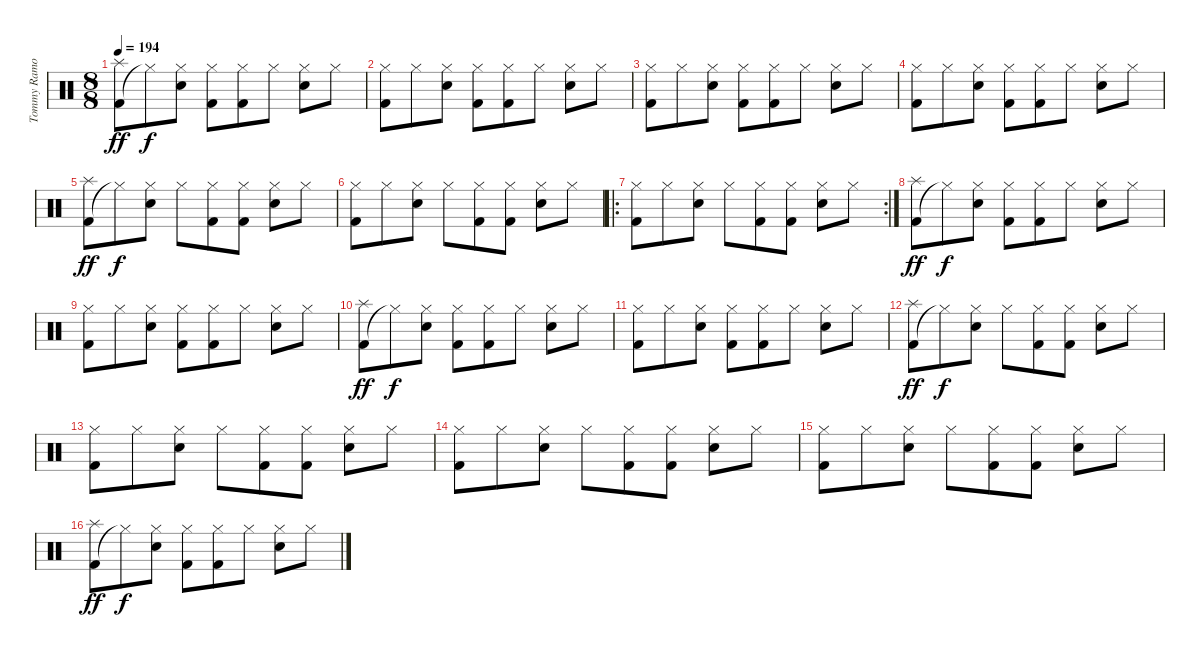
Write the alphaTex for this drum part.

\track ("Tommy Ramone - Drums" "Tommy Ramo") {instrument percussion}
\staff {score}
\articulation defaults
\ts (8 8)
\tempo 194
\clef neutral
\ks c
("Kick (hit) 2" "Splash (hit)").8{dy ff} "Hi-Hat (closed)"{t}.8{dy f} ("Electric Snare (hit)" "Hi-Hat (closed)").8 ("Kick (hit) 2" "Hi-Hat (closed)").8 ("Kick (hit) 2" "Hi-Hat (closed)").8 "Hi-Hat (closed)".8 ("Electric Snare (hit)" "Hi-Hat (closed)").8 "Hi-Hat (closed)".8 |
("Kick (hit) 2" "Hi-Hat (closed)").8 "Hi-Hat (closed)".8 ("Electric Snare (hit)" "Hi-Hat (closed)").8 ("Kick (hit) 2" "Hi-Hat (closed)").8 ("Kick (hit) 2" "Hi-Hat (closed)").8 "Hi-Hat (closed)".8 ("Electric Snare (hit)" "Hi-Hat (closed)").8 "Hi-Hat (closed)".8 |
("Kick (hit) 2" "Hi-Hat (closed)").8 "Hi-Hat (closed)".8 ("Electric Snare (hit)" "Hi-Hat (closed)").8 ("Kick (hit) 2" "Hi-Hat (closed)").8 ("Kick (hit) 2" "Hi-Hat (closed)").8 "Hi-Hat (closed)".8 ("Electric Snare (hit)" "Hi-Hat (closed)").8 "Hi-Hat (closed)".8 |
("Kick (hit) 2" "Hi-Hat (closed)").8 "Hi-Hat (closed)".8 ("Electric Snare (hit)" "Hi-Hat (closed)").8 ("Kick (hit) 2" "Hi-Hat (closed)").8 ("Kick (hit) 2" "Hi-Hat (closed)").8 "Hi-Hat (closed)".8 ("Electric Snare (hit)" "Hi-Hat (closed)").8 "Hi-Hat (closed)".8 |
("Kick (hit) 2" "Splash (hit)").8{dy ff} "Hi-Hat (closed)"{t}.8{dy f} ("Electric Snare (hit)" "Hi-Hat (closed)").8 "Hi-Hat (closed)".8 ("Kick (hit) 2" "Hi-Hat (closed)").8 ("Kick (hit) 2" "Hi-Hat (closed)").8 ("Electric Snare (hit)" "Hi-Hat (closed)").8 "Hi-Hat (closed)".8 |
("Kick (hit) 2" "Hi-Hat (closed)").8 "Hi-Hat (closed)".8 ("Electric Snare (hit)" "Hi-Hat (closed)").8 "Hi-Hat (closed)".8 ("Kick (hit) 2" "Hi-Hat (closed)").8 ("Kick (hit) 2" "Hi-Hat (closed)").8 ("Electric Snare (hit)" "Hi-Hat (closed)").8 "Hi-Hat (closed)".8 |
\ro
\rc 2
("Kick (hit) 2" "Hi-Hat (closed)").8 "Hi-Hat (closed)".8 ("Electric Snare (hit)" "Hi-Hat (closed)").8 "Hi-Hat (closed)".8 ("Kick (hit) 2" "Hi-Hat (closed)").8 ("Kick (hit) 2" "Hi-Hat (closed)").8 ("Electric Snare (hit)" "Hi-Hat (closed)").8 "Hi-Hat (closed)".8 |
("Kick (hit) 2" "Splash (hit)").8{dy ff} "Hi-Hat (closed)"{t}.8{dy f} ("Electric Snare (hit)" "Hi-Hat (closed)").8 ("Kick (hit) 2" "Hi-Hat (closed)").8 ("Kick (hit) 2" "Hi-Hat (closed)").8 "Hi-Hat (closed)".8 ("Electric Snare (hit)" "Hi-Hat (closed)").8 "Hi-Hat (closed)".8 |
("Kick (hit) 2" "Hi-Hat (closed)").8 "Hi-Hat (closed)".8 ("Electric Snare (hit)" "Hi-Hat (closed)").8 ("Kick (hit) 2" "Hi-Hat (closed)").8 ("Kick (hit) 2" "Hi-Hat (closed)").8 "Hi-Hat (closed)".8 ("Electric Snare (hit)" "Hi-Hat (closed)").8 "Hi-Hat (closed)".8 |
("Kick (hit) 2" "Splash (hit)").8{dy ff} "Hi-Hat (closed)"{t}.8{dy f} ("Electric Snare (hit)" "Hi-Hat (closed)").8 ("Kick (hit) 2" "Hi-Hat (closed)").8 ("Kick (hit) 2" "Hi-Hat (closed)").8 "Hi-Hat (closed)".8 ("Electric Snare (hit)" "Hi-Hat (closed)").8 "Hi-Hat (closed)".8 |
("Kick (hit) 2" "Hi-Hat (closed)").8 "Hi-Hat (closed)".8 ("Electric Snare (hit)" "Hi-Hat (closed)").8 ("Kick (hit) 2" "Hi-Hat (closed)").8 ("Kick (hit) 2" "Hi-Hat (closed)").8 "Hi-Hat (closed)".8 ("Electric Snare (hit)" "Hi-Hat (closed)").8 "Hi-Hat (closed)".8 |
("Kick (hit) 2" "Splash (hit)").8{dy ff} "Hi-Hat (closed)"{t}.8{dy f} ("Electric Snare (hit)" "Hi-Hat (closed)").8 "Hi-Hat (closed)".8 ("Kick (hit) 2" "Hi-Hat (closed)").8 ("Kick (hit) 2" "Hi-Hat (closed)").8 ("Electric Snare (hit)" "Hi-Hat (closed)").8 "Hi-Hat (closed)".8 |
("Kick (hit) 2" "Hi-Hat (closed)").8 "Hi-Hat (closed)".8 ("Electric Snare (hit)" "Hi-Hat (closed)").8 "Hi-Hat (closed)".8 ("Kick (hit) 2" "Hi-Hat (closed)").8 ("Kick (hit) 2" "Hi-Hat (closed)").8 ("Electric Snare (hit)" "Hi-Hat (closed)").8 "Hi-Hat (closed)".8 |
("Kick (hit) 2" "Hi-Hat (closed)").8 "Hi-Hat (closed)".8 ("Electric Snare (hit)" "Hi-Hat (closed)").8 "Hi-Hat (closed)".8 ("Kick (hit) 2" "Hi-Hat (closed)").8 ("Kick (hit) 2" "Hi-Hat (closed)").8 ("Electric Snare (hit)" "Hi-Hat (closed)").8 "Hi-Hat (closed)".8 |
("Kick (hit) 2" "Hi-Hat (closed)").8 "Hi-Hat (closed)".8 ("Electric Snare (hit)" "Hi-Hat (closed)").8 "Hi-Hat (closed)".8 ("Kick (hit) 2" "Hi-Hat (closed)").8 ("Kick (hit) 2" "Hi-Hat (closed)").8 ("Electric Snare (hit)" "Hi-Hat (closed)").8 "Hi-Hat (closed)".8 |
("Kick (hit) 2" "Splash (hit)").8{dy ff} "Hi-Hat (closed)"{t}.8{dy f} ("Electric Snare (hit)" "Hi-Hat (closed)").8 ("Kick (hit) 2" "Hi-Hat (closed)").8 ("Kick (hit) 2" "Hi-Hat (closed)").8 "Hi-Hat (closed)".8 ("Electric Snare (hit)" "Hi-Hat (closed)").8 "Hi-Hat (closed)".8
